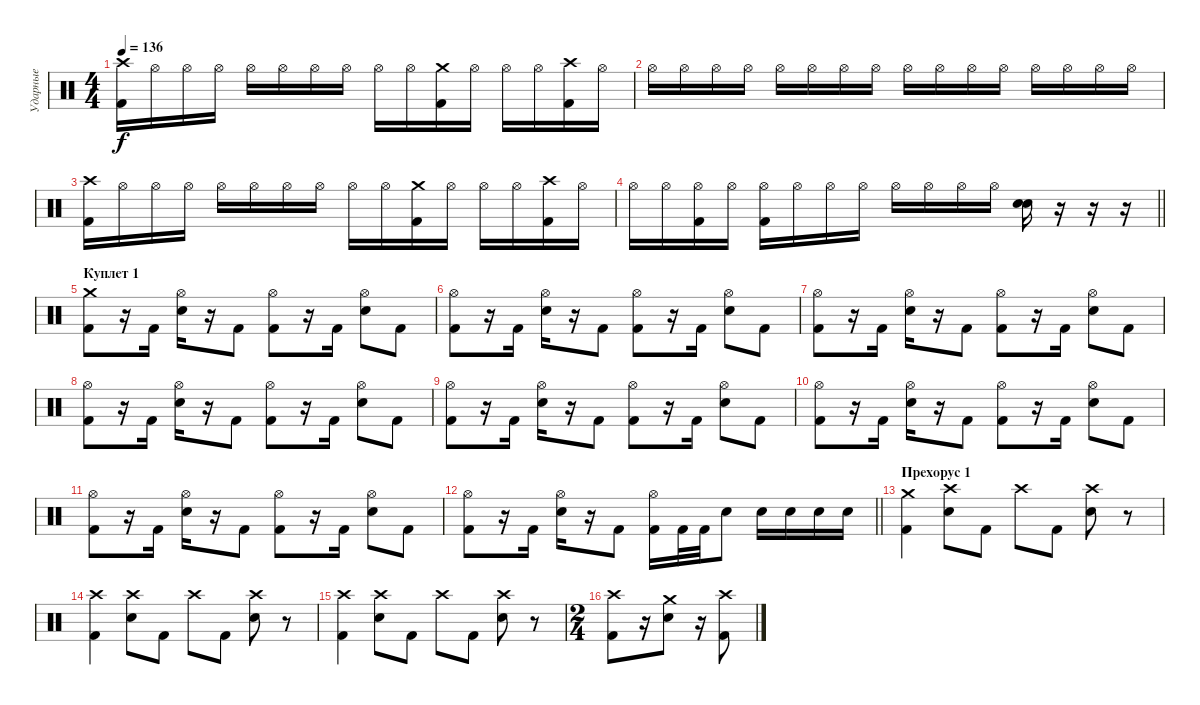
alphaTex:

\track ("Ударные" "Ударные") {instrument percussion}
\staff {score}
\articulation defaults
\ts (4 4)
\tempo 136
\clef neutral
\ks c
("Crash high (hit)" "Kick (hit) 2").16{dy f} "Hi-Hat (open)".16 "Hi-Hat (open)".16 "Hi-Hat (open)".16 "Hi-Hat (open)".16 "Hi-Hat (open)".16 "Hi-Hat (open)".16 "Hi-Hat (open)".16 "Hi-Hat (open)".16 "Hi-Hat (open)".16 ("Crash medium (hit)" "Kick (hit) 2").16 "Hi-Hat (open)".16 "Hi-Hat (open)".16 "Hi-Hat (open)".16 ("Crash high (hit)" "Kick (hit) 2").16 "Hi-Hat (open)".16 |
"Hi-Hat (open)".16 "Hi-Hat (open)".16 "Hi-Hat (open)".16 "Hi-Hat (open)".16 "Hi-Hat (open)".16 "Hi-Hat (open)".16 "Hi-Hat (open)".16 "Hi-Hat (open)".16 "Hi-Hat (open)".16 "Hi-Hat (open)".16 "Hi-Hat (open)".16 "Hi-Hat (open)".16 "Hi-Hat (open)".16 "Hi-Hat (open)".16 "Hi-Hat (open)".16 "Hi-Hat (open)".16 |
("Crash high (hit)" "Kick (hit) 2").16 "Hi-Hat (open)".16 "Hi-Hat (open)".16 "Hi-Hat (open)".16 "Hi-Hat (open)".16 "Hi-Hat (open)".16 "Hi-Hat (open)".16 "Hi-Hat (open)".16 "Hi-Hat (open)".16 "Hi-Hat (open)".16 ("Crash medium (hit)" "Kick (hit) 2").16 "Hi-Hat (open)".16 "Hi-Hat (open)".16 "Hi-Hat (open)".16 ("Crash high (hit)" "Kick (hit) 2").16 "Hi-Hat (open)".16 |
\barLineRight lightlight "Hi-Hat (open)".16 "Hi-Hat (open)".16
("Hi-Hat (open)" "Kick (hit) 2").16 "Hi-Hat (open)".16 ("Hi-Hat (open)" "Kick (hit) 2").16 "Hi-Hat (open)".16 "Hi-Hat (open)".16 "Hi-Hat (open)".16 "Hi-Hat (open)".16 "Hi-Hat (open)".16 "Hi-Hat (open)".16 "Hi-Hat (open)".16 ("Snare (hit) 2" "Snare (hit) 2").16 r.16 r.16 r.16 |
\section ("" "Куплет 1")
("Crash medium (hit)" "Kick (hit) 2").8 r.16 "Kick (hit) 2".16 ("Hi-Hat (open)" "Snare (hit) 2").16 r.16 "Kick (hit) 2".8 ("Hi-Hat (open)" "Kick (hit) 2").8 r.16 "Kick (hit) 2".16 ("Hi-Hat (open)" "Snare (hit) 2").8 "Kick (hit) 2".8 |
("Hi-Hat (open)" "Kick (hit) 2").8 r.16 "Kick (hit) 2".16 ("Hi-Hat (open)" "Snare (hit) 2").16 r.16 "Kick (hit) 2".8 ("Hi-Hat (open)" "Kick (hit) 2").8 r.16 "Kick (hit) 2".16 ("Hi-Hat (open)" "Snare (hit) 2").8 "Kick (hit) 2".8 |
("Hi-Hat (open)" "Kick (hit) 2").8 r.16 "Kick (hit) 2".16 ("Hi-Hat (open)" "Snare (hit) 2").16 r.16 "Kick (hit) 2".8 ("Hi-Hat (open)" "Kick (hit) 2").8 r.16 "Kick (hit) 2".16 ("Hi-Hat (open)" "Snare (hit) 2").8 "Kick (hit) 2".8 |
("Hi-Hat (open)" "Kick (hit) 2").8 r.16 "Kick (hit) 2".16 ("Hi-Hat (open)" "Snare (hit) 2").16 r.16 "Kick (hit) 2".8 ("Hi-Hat (open)" "Kick (hit) 2").8 r.16 "Kick (hit) 2".16 ("Hi-Hat (open)" "Snare (hit) 2").8 "Kick (hit) 2".8 |
("Hi-Hat (open)" "Kick (hit) 2").8 r.16 "Kick (hit) 2".16 ("Hi-Hat (open)" "Snare (hit) 2").16 r.16 "Kick (hit) 2".8 ("Hi-Hat (open)" "Kick (hit) 2").8 r.16 "Kick (hit) 2".16 ("Hi-Hat (open)" "Snare (hit) 2").8 "Kick (hit) 2".8 |
("Hi-Hat (open)" "Kick (hit) 2").8 r.16 "Kick (hit) 2".16 ("Hi-Hat (open)" "Snare (hit) 2").16 r.16 "Kick (hit) 2".8 ("Hi-Hat (open)" "Kick (hit) 2").8 r.16 "Kick (hit) 2".16 ("Hi-Hat (open)" "Snare (hit) 2").8 "Kick (hit) 2".8 |
("Hi-Hat (open)" "Kick (hit) 2").8 r.16 "Kick (hit) 2".16 ("Hi-Hat (open)" "Snare (hit) 2").16 r.16 "Kick (hit) 2".8 ("Hi-Hat (open)" "Kick (hit) 2").8 r.16 "Kick (hit) 2".16 ("Hi-Hat (open)" "Snare (hit) 2").8 "Kick (hit) 2".8 |
\barLineRight lightlight
("Hi-Hat (open)" "Kick (hit) 2").8 r.16 "Kick (hit) 2".16 ("Hi-Hat (open)" "Snare (hit) 2").16 r.16 "Kick (hit) 2".8 ("Hi-Hat (open)" "Kick (hit) 2").16 "Kick (hit) 2".32 "Kick (hit) 2".32 "Snare (hit) 2".8 "Snare (hit) 2".16 "Snare (hit) 2".16 "Snare (hit) 2".16 "Snare (hit) 2".16 |
\section ("" "Прехорус 1")
("Crash medium (hit)" "Kick (hit) 2").4 ("Crash high (hit)" "Snare (hit) 2").8 "Kick (hit) 2".8 "Crash high (hit)".8 "Kick (hit) 2".8 ("Crash high (hit)" "Snare (hit) 2").8 r.8 |
("Crash high (hit)" "Kick (hit) 2").4 ("Crash high (hit)" "Snare (hit) 2").8 "Kick (hit) 2".8 "Crash high (hit)".8 "Kick (hit) 2".8 ("Crash high (hit)" "Snare (hit) 2").8 r.8 |
("Crash high (hit)" "Kick (hit) 2").4 ("Crash high (hit)" "Snare (hit) 2").8 "Kick (hit) 2".8 "Crash high (hit)".8 "Kick (hit) 2".8 ("Crash high (hit)" "Snare (hit) 2").8 r.8 |
\ts (2 4)
("Crash high (hit)" "Kick (hit) 2").8 r.16 ("Crash medium (hit)" "Snare (hit) 2").8 r.16 ("Crash high (hit)" "Kick (hit) 2").8
